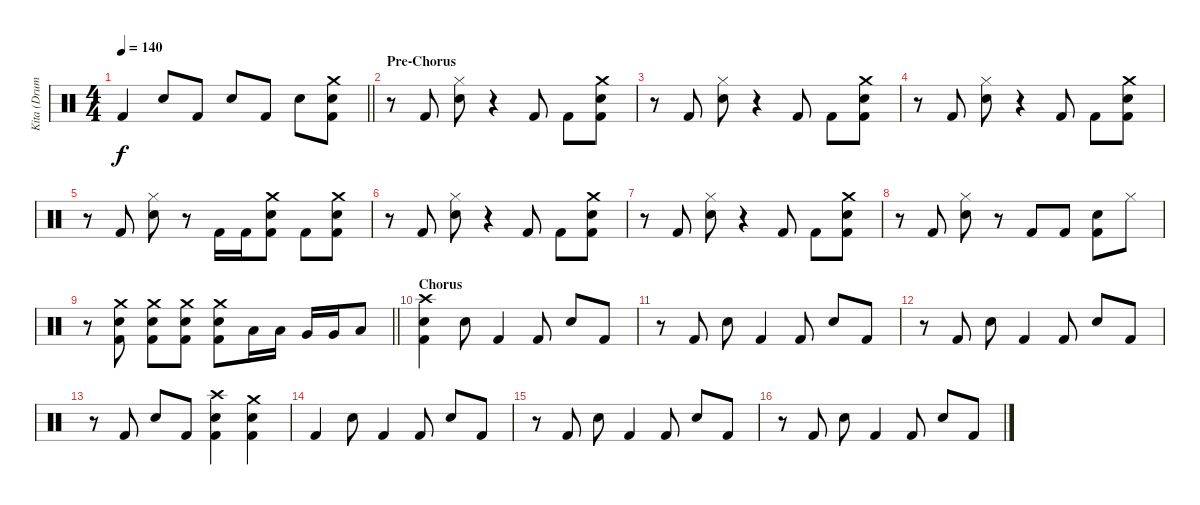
\track ("Kita (Drums)" "Kita (Drum") {instrument percussion}
\staff {score}
\articulation defaults
\ts (4 4)
\tempo 140
\clef neutral
\barLineRight lightlight
\ks c "Kick (hit) 2".4{dy f} "Snare (hit) 2".8 "Kick (hit) 2".8 "Snare (hit) 2".8 "Kick (hit) 2".8 "Snare (hit) 2".8
("Crash medium (hit)" "Snare (hit) 2" "Kick (hit) 2").8 |
\section ("" "Pre-Chorus")
r.8 "Kick (hit) 2".8 ("Hi-Hat (closed)" "Snare (hit) 2").8 r.4 "Kick (hit) 2".8 "Kick (hit) 2".8 ("Crash medium (hit)" "Snare (hit) 2" "Kick (hit) 2").8 |
r.8 "Kick (hit) 2".8 ("Hi-Hat (closed)" "Snare (hit) 2").8 r.4 "Kick (hit) 2".8 "Kick (hit) 2".8 ("Crash medium (hit)" "Snare (hit) 2" "Kick (hit) 2").8 |
r.8 "Kick (hit) 2".8 ("Hi-Hat (closed)" "Snare (hit) 2").8 r.4 "Kick (hit) 2".8 "Kick (hit) 2".8 ("Crash medium (hit)" "Snare (hit) 2" "Kick (hit) 2").8 |
r.8 "Kick (hit) 2".8 ("Hi-Hat (closed)" "Snare (hit) 2").8 r.8 "Kick (hit) 2".16 "Kick (hit) 2".16 ("Crash medium (hit)" "Snare (hit) 2" "Kick (hit) 2").8 "Kick (hit) 2".8 ("Crash medium (hit)" "Snare (hit) 2" "Kick (hit) 2").8 |
r.8 "Kick (hit) 2".8 ("Hi-Hat (closed)" "Snare (hit) 2").8 r.4 "Kick (hit) 2".8 "Kick (hit) 2".8 ("Crash medium (hit)" "Snare (hit) 2" "Kick (hit) 2").8 |
r.8 "Kick (hit) 2".8 ("Hi-Hat (closed)" "Snare (hit) 2").8 r.4 "Kick (hit) 2".8 "Kick (hit) 2".8 ("Crash medium (hit)" "Snare (hit) 2" "Kick (hit) 2").8 |
r.8 "Kick (hit) 2".8 ("Hi-Hat (closed)" "Snare (hit) 2").8 r.8 "Kick (hit) 2".8 "Kick (hit) 2".8 ("Snare (hit) 2" "Kick (hit) 2").8 "Hi-Hat (closed)".8 |
\barLineRight lightlight
r.8 ("Crash medium (hit)" "Snare (hit) 2" "Kick (hit) 2").8 ("Crash medium (hit)" "Snare (hit) 2" "Kick (hit) 2").8 ("Crash medium (hit)" "Snare (hit) 2" "Kick (hit) 2").8 ("Crash medium (hit)" "Snare (hit) 2" "Kick (hit) 2").8 "Low Tom (hit)".16 "Low Tom (hit)".16 "Very Low Tom (hit)".16 "Very Low Tom (hit)".16 "Low Floor Tom (hit)".8 |
\section ("" "Chorus")
("Crash high (hit)" "Snare (hit) 2" "Kick (hit) 2").4 "Snare (hit) 2".8 "Kick (hit) 2".4 "Kick (hit) 2".8 "Snare (hit) 2".8 "Kick (hit) 2".8 |
r.8 "Kick (hit) 2".8 "Snare (hit) 2".8 "Kick (hit) 2".4 "Kick (hit) 2".8 "Snare (hit) 2".8 "Kick (hit) 2".8 |
r.8 "Kick (hit) 2".8 "Snare (hit) 2".8 "Kick (hit) 2".4 "Kick (hit) 2".8 "Snare (hit) 2".8 "Kick (hit) 2".8 |
r.8 "Kick (hit) 2".8 "Snare (hit) 2".8 "Kick (hit) 2".8 ("Crash high (hit)" "Snare (hit) 2" "Kick (hit) 2").4 ("Crash medium (hit)" "Snare (hit) 2" "Kick (hit) 2").4 |
"Kick (hit) 2".4 "Snare (hit) 2".8 "Kick (hit) 2".4 "Kick (hit) 2".8 "Snare (hit) 2".8 "Kick (hit) 2".8 |
r.8 "Kick (hit) 2".8 "Snare (hit) 2".8 "Kick (hit) 2".4 "Kick (hit) 2".8 "Snare (hit) 2".8 "Kick (hit) 2".8 |
r.8 "Kick (hit) 2".8 "Snare (hit) 2".8 "Kick (hit) 2".4 "Kick (hit) 2".8 "Snare (hit) 2".8 "Kick (hit) 2".8
